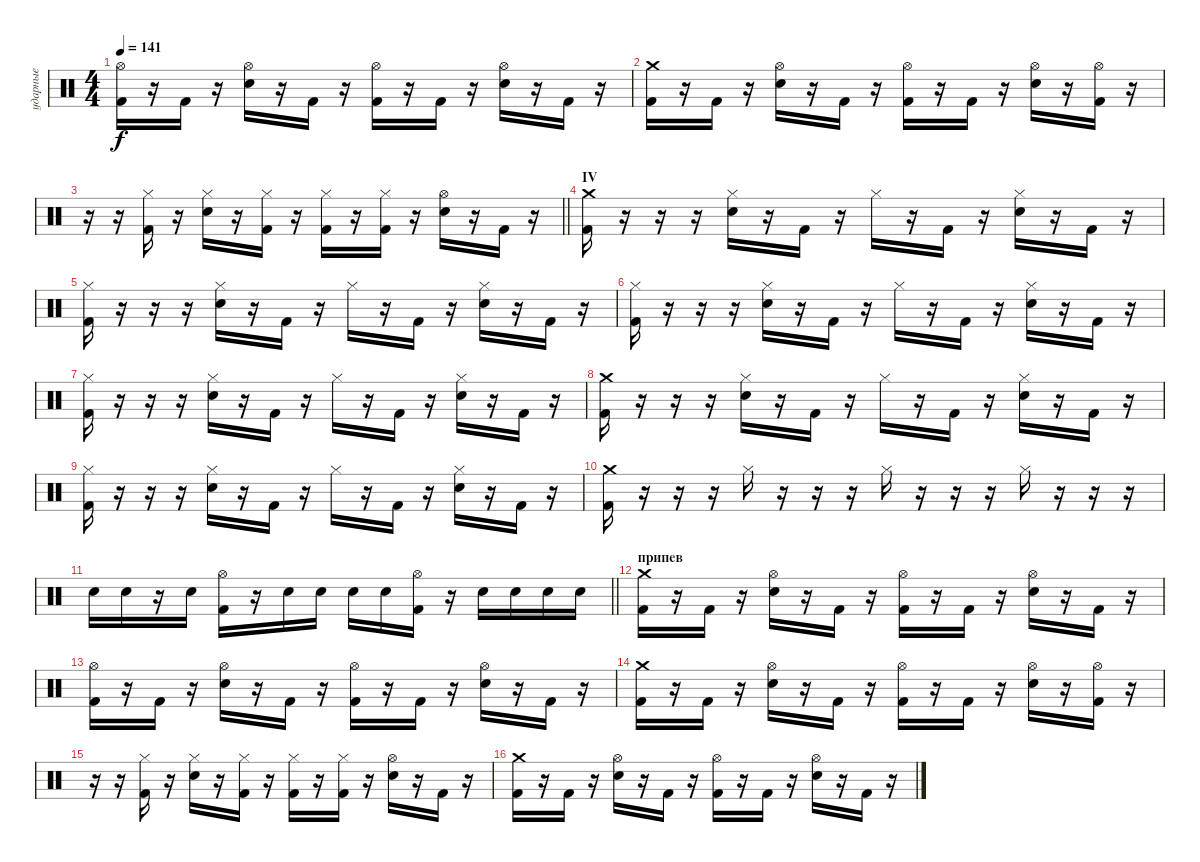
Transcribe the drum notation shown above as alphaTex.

\track ("ударные" "ударные") {instrument percussion}
\staff {score}
\articulation defaults
\ts (4 4)
\tempo 141
\clef neutral
\ks c
("Kick (hit) 2" "Hi-Hat (open)").16{dy f} r.16 "Kick (hit) 2".16 r.16 ("Snare (hit) 2" "Hi-Hat (open)").16 r.16 "Kick (hit) 2".16 r.16 ("Kick (hit) 2" "Hi-Hat (open)").16 r.16 "Kick (hit) 2".16 r.16 ("Snare (hit) 2" "Hi-Hat (open)").16 r.16 "Kick (hit) 2".16 r.16 |
("Kick (hit) 2" "Crash medium (hit)").16 r.16 "Kick (hit) 2".16 r.16 ("Snare (hit) 2" "Hi-Hat (open)").16 r.16 "Kick (hit) 2".16 r.16 ("Kick (hit) 2" "Hi-Hat (open)").16 r.16 "Kick (hit) 2".16 r.16 ("Electric Snare (hit)" "Hi-Hat (open)").16 r.16 ("Kick (hit) 2" "Hi-Hat (open)").16 r.16 |
\barLineRight lightlight
r.16 r.16 ("Kick (hit) 2" "Hi-Hat (closed)").16 r.16 ("Snare (hit) 2" "Hi-Hat (closed)").16 r.16 ("Kick (hit) 2" "Hi-Hat (closed)").16 r.16 ("Kick (hit) 2" "Hi-Hat (closed)").16 r.16 ("Kick (hit) 2" "Hi-Hat (closed)").16 r.16 ("Snare (hit) 2" "Hi-Hat (open)").16 r.16 "Kick (hit) 2".16 r.16 |
\section ("" "IV")
("Kick (hit) 2" "Crash medium (hit)").16 r.16 r.16 r.16 ("Snare (hit) 2" "Hi-Hat (closed)").16 r.16 "Kick (hit) 2".16 r.16 "Hi-Hat (closed)".16 r.16 "Kick (hit) 2".16 r.16 ("Snare (hit) 2" "Hi-Hat (closed)").16 r.16 "Kick (hit) 2".16 r.16 |
("Kick (hit) 2" "Hi-Hat (closed)").16 r.16 r.16 r.16 ("Snare (hit) 2" "Hi-Hat (closed)").16 r.16 "Kick (hit) 2".16 r.16 "Hi-Hat (closed)".16 r.16 "Kick (hit) 2".16 r.16 ("Snare (hit) 2" "Hi-Hat (closed)").16 r.16 "Kick (hit) 2".16 r.16 |
("Kick (hit) 2" "Hi-Hat (closed)").16 r.16 r.16 r.16 ("Snare (hit) 2" "Hi-Hat (closed)").16 r.16 "Kick (hit) 2".16 r.16 "Hi-Hat (closed)".16 r.16 "Kick (hit) 2".16 r.16 ("Snare (hit) 2" "Hi-Hat (closed)").16 r.16 "Kick (hit) 2".16 r.16 |
("Kick (hit) 2" "Hi-Hat (closed)").16 r.16 r.16 r.16 ("Snare (hit) 2" "Hi-Hat (closed)").16 r.16 "Kick (hit) 2".16 r.16 "Hi-Hat (closed)".16 r.16 "Kick (hit) 2".16 r.16 ("Snare (hit) 2" "Hi-Hat (closed)").16 r.16 "Kick (hit) 2".16 r.16 |
("Kick (hit) 2" "Crash medium (hit)").16 r.16 r.16 r.16 ("Snare (hit) 2" "Hi-Hat (closed)").16 r.16 "Kick (hit) 2".16 r.16 "Hi-Hat (closed)".16 r.16 "Kick (hit) 2".16 r.16 ("Snare (hit) 2" "Hi-Hat (closed)").16 r.16 "Kick (hit) 2".16 r.16 |
("Kick (hit) 2" "Hi-Hat (closed)").16 r.16 r.16 r.16 ("Snare (hit) 2" "Hi-Hat (closed)").16 r.16 "Kick (hit) 2".16 r.16 "Hi-Hat (closed)".16 r.16 "Kick (hit) 2".16 r.16 ("Snare (hit) 2" "Hi-Hat (closed)").16 r.16 "Kick (hit) 2".16 r.16 |
("Kick (hit) 2" "Crash medium (hit)").16 r.16 r.16 r.16 "Hi-Hat (closed)".16 r.16 r.16 r.16 "Hi-Hat (closed)".16 r.16 r.16 r.16 "Hi-Hat (closed)".16 r.16 r.16 r.16 |
\barLineRight lightlight "Snare (hit) 2".16 "Snare (hit) 2".16
r.16 "Snare (hit) 2".16 ("Kick (hit) 2" "Hi-Hat (open)").16 r.16 "Snare (hit) 2".16 "Snare (hit) 2".16 "Snare (hit) 2".16 "Snare (hit) 2".16 ("Kick (hit) 2" "Hi-Hat (open)").16 r.16 "Snare (hit) 2".16 "Snare (hit) 2".16 "Snare (hit) 2".16 "Snare (hit) 2".16 |
\section ("" "припев")
("Kick (hit) 2" "Crash medium (hit)").16 r.16 "Kick (hit) 2".16 r.16 ("Snare (hit) 2" "Hi-Hat (open)").16 r.16 "Kick (hit) 2".16 r.16 ("Kick (hit) 2" "Hi-Hat (open)").16 r.16 "Kick (hit) 2".16 r.16 ("Snare (hit) 2" "Hi-Hat (open)").16 r.16 "Kick (hit) 2".16 r.16 |
("Kick (hit) 2" "Hi-Hat (open)").16 r.16 "Kick (hit) 2".16 r.16 ("Snare (hit) 2" "Hi-Hat (open)").16 r.16 "Kick (hit) 2".16 r.16 ("Kick (hit) 2" "Hi-Hat (open)").16 r.16 "Kick (hit) 2".16 r.16 ("Snare (hit) 2" "Hi-Hat (open)").16 r.16 "Kick (hit) 2".16 r.16 |
("Kick (hit) 2" "Crash medium (hit)").16 r.16 "Kick (hit) 2".16 r.16 ("Snare (hit) 2" "Hi-Hat (open)").16 r.16 "Kick (hit) 2".16 r.16 ("Kick (hit) 2" "Hi-Hat (open)").16 r.16 "Kick (hit) 2".16 r.16 ("Electric Snare (hit)" "Hi-Hat (open)").16 r.16 ("Kick (hit) 2" "Hi-Hat (open)").16 r.16 |
r.16 r.16 ("Kick (hit) 2" "Hi-Hat (closed)").16 r.16 ("Snare (hit) 2" "Hi-Hat (closed)").16 r.16 ("Kick (hit) 2" "Hi-Hat (closed)").16 r.16 ("Kick (hit) 2" "Hi-Hat (closed)").16 r.16 ("Kick (hit) 2" "Hi-Hat (closed)").16 r.16 ("Snare (hit) 2" "Hi-Hat (open)").16 r.16 "Kick (hit) 2".16 r.16 |
("Kick (hit) 2" "Crash medium (hit)").16 r.16 "Kick (hit) 2".16 r.16 ("Snare (hit) 2" "Hi-Hat (open)").16 r.16 "Kick (hit) 2".16 r.16 ("Kick (hit) 2" "Hi-Hat (open)").16 r.16 "Kick (hit) 2".16 r.16 ("Snare (hit) 2" "Hi-Hat (open)").16 r.16 "Kick (hit) 2".16 r.16
